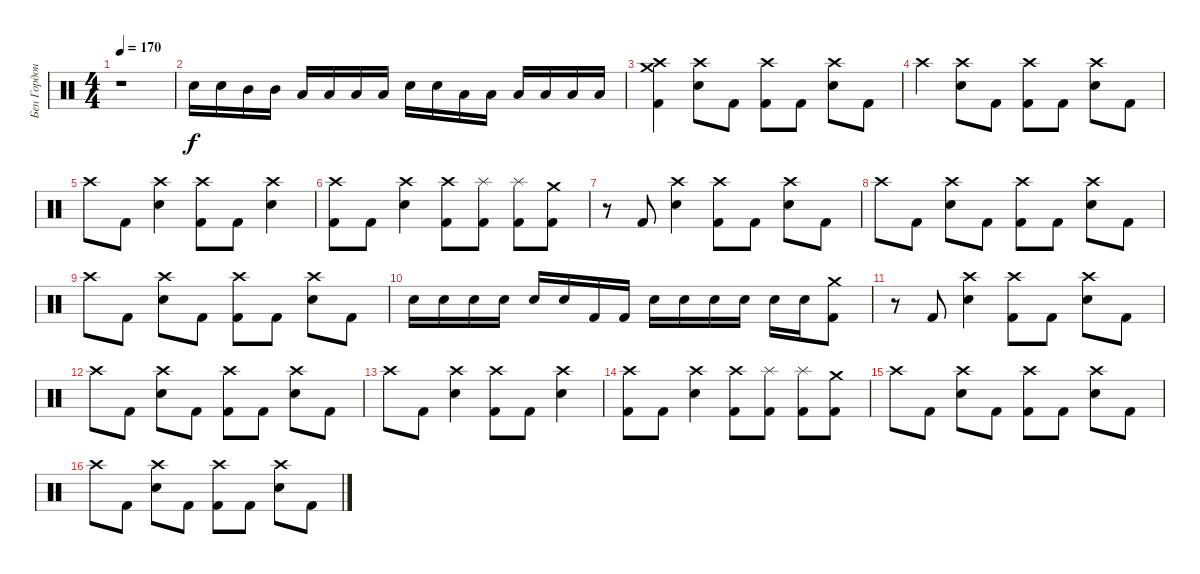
\track ("Бен Гордон" "Бен Гордон") {instrument percussion}
\staff {score}
\articulation defaults
\ts (4 4)
\tempo 170
\clef neutral
\ks c
r.1{dy f} |
"Electric Snare (hit)".16 "Electric Snare (hit)".16 "Mid Tom (hit)".16 "Mid Tom (hit)".16 "Low Tom (hit)".16 "Low Tom (hit)".16 "Low Floor Tom (hit)".16 "Low Floor Tom (hit)".16 "Electric Snare (hit)".16 "Electric Snare (hit)".16 "Low Tom (hit)".16 "Low Tom (hit)".16 "Low Floor Tom (hit)".16 "Low Floor Tom (hit)".16 "Low Floor Tom (hit)".16 "Low Floor Tom (hit)".16 |
("Crash high (hit)" "Crash medium (hit)" "Kick (hit) 2").4 ("Crash high (hit)" "Electric Snare (hit)").8 "Kick (hit) 2".8 ("Crash high (hit)" "Kick (hit) 2").8 "Kick (hit) 2".8 ("Crash high (hit)" "Electric Snare (hit)").8 "Kick (hit) 2".8 |
"Crash high (hit)".4 ("Crash high (hit)" "Electric Snare (hit)").8 "Kick (hit) 2".8 ("Crash high (hit)" "Kick (hit) 2").8 "Kick (hit) 2".8 ("Crash high (hit)" "Electric Snare (hit)").8 "Kick (hit) 2".8 |
"Crash high (hit)".8 "Kick (hit) 2".8 ("Crash high (hit)" "Electric Snare (hit)").4 ("Crash high (hit)" "Kick (hit) 2").8 "Kick (hit) 2".8 ("Crash high (hit)" "Electric Snare (hit)").4 |
("Crash high (hit)" "Kick (hit) 2").8 "Kick (hit) 2".8 ("Crash high (hit)" "Electric Snare (hit)").4 ("Crash high (hit)" "Kick (hit) 2").8 ("Splash (hit)" "Kick (hit) 2").8 ("Splash (hit)" "Kick (hit) 2").8 ("Crash medium (hit)" "Kick (hit) 2").8 |
r.8 "Kick (hit) 2".8 ("Crash high (hit)" "Electric Snare (hit)").4 ("Crash high (hit)" "Kick (hit) 2").8 "Kick (hit) 2".8 ("Crash high (hit)" "Electric Snare (hit)").8 "Kick (hit) 2".8 |
"Crash high (hit)".8 "Kick (hit) 2".8 ("Crash high (hit)" "Electric Snare (hit)").8 "Kick (hit) 2".8 ("Crash high (hit)" "Kick (hit) 2").8 "Kick (hit) 2".8 ("Crash high (hit)" "Electric Snare (hit)").8 "Kick (hit) 2".8 |
"Crash high (hit)".8 "Kick (hit) 2".8 ("Crash high (hit)" "Electric Snare (hit)").8 "Kick (hit) 2".8 ("Crash high (hit)" "Kick (hit) 2").8 "Kick (hit) 2".8 ("Crash high (hit)" "Electric Snare (hit)").8 "Kick (hit) 2".8 |
"Electric Snare (hit)".16 "Electric Snare (hit)".16 "Electric Snare (hit)".16 "Electric Snare (hit)".16 "Electric Snare (hit)".16 "Electric Snare (hit)".16 "Kick (hit) 2".16 "Kick (hit) 2".16 "Electric Snare (hit)".16 "Electric Snare (hit)".16 "Electric Snare (hit)".16 "Electric Snare (hit)".16 "Electric Snare (hit)".16 "Electric Snare (hit)".16 ("Crash medium (hit)" "Kick (hit) 2").8 |
r.8 "Kick (hit) 2".8 ("Crash high (hit)" "Electric Snare (hit)").4 ("Crash high (hit)" "Kick (hit) 2").8 "Kick (hit) 2".8 ("Crash high (hit)" "Electric Snare (hit)").8 "Kick (hit) 2".8 |
"Crash high (hit)".8 "Kick (hit) 2".8 ("Crash high (hit)" "Electric Snare (hit)").8 "Kick (hit) 2".8 ("Crash high (hit)" "Kick (hit) 2").8 "Kick (hit) 2".8 ("Crash high (hit)" "Electric Snare (hit)").8 "Kick (hit) 2".8 |
"Crash high (hit)".8 "Kick (hit) 2".8 ("Crash high (hit)" "Electric Snare (hit)").4 ("Crash high (hit)" "Kick (hit) 2").8 "Kick (hit) 2".8 ("Crash high (hit)" "Electric Snare (hit)").4 |
("Crash high (hit)" "Kick (hit) 2").8 "Kick (hit) 2".8 ("Crash high (hit)" "Electric Snare (hit)").4 ("Crash high (hit)" "Kick (hit) 2").8 ("Splash (hit)" "Kick (hit) 2").8 ("Splash (hit)" "Kick (hit) 2").8 ("Crash medium (hit)" "Kick (hit) 2").8 |
"Crash high (hit)".8 "Kick (hit) 2".8 ("Crash high (hit)" "Electric Snare (hit)").8 "Kick (hit) 2".8 ("Crash high (hit)" "Kick (hit) 2").8 "Kick (hit) 2".8 ("Crash high (hit)" "Electric Snare (hit)").8 "Kick (hit) 2".8 |
"Crash high (hit)".8 "Kick (hit) 2".8 ("Crash high (hit)" "Electric Snare (hit)").8 "Kick (hit) 2".8 ("Crash high (hit)" "Kick (hit) 2").8 "Kick (hit) 2".8 ("Crash high (hit)" "Electric Snare (hit)").8 "Kick (hit) 2".8
